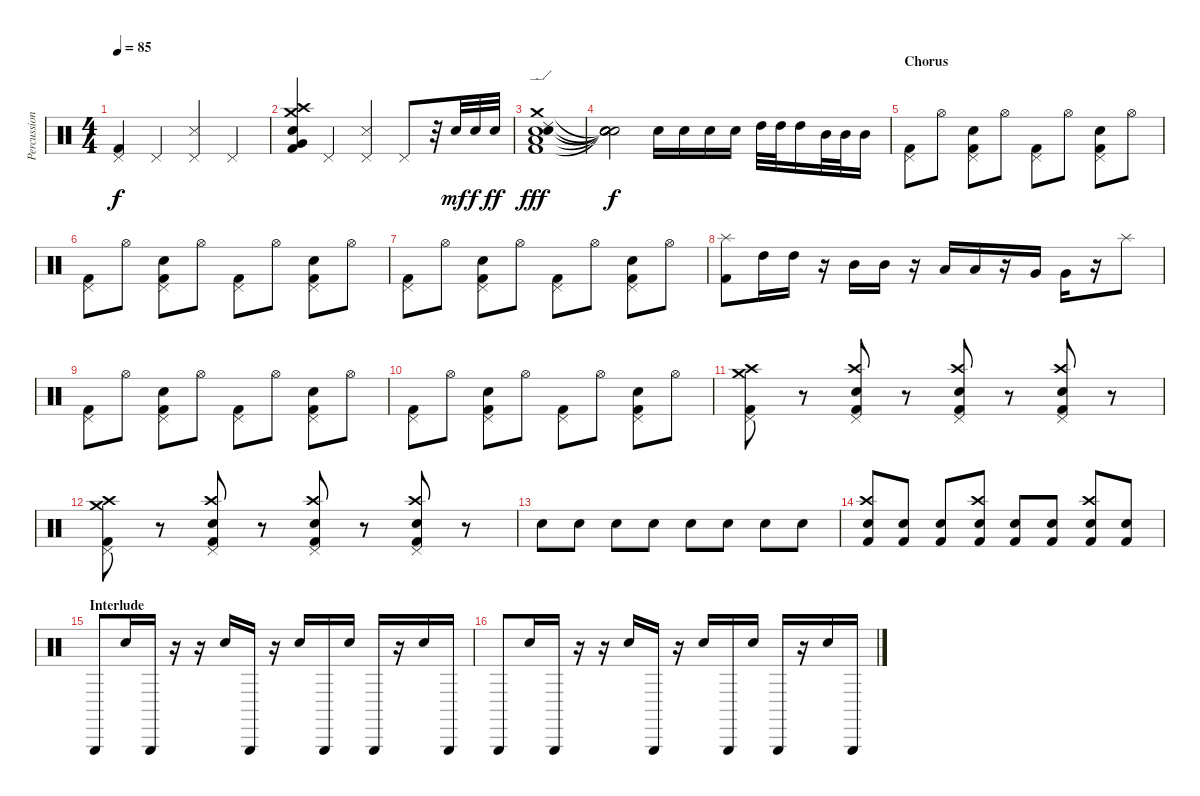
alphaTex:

\track ("Percussion" "Percussion") {instrument percussion}
\staff {score}
\articulation defaults
\ts (4 4)
\tempo 85
\clef neutral
\ks c
("Pedal Hi-Hat (hit)" "Kick (hit) 2").4{dy f} "Pedal Hi-Hat (hit)".4 ("Pedal Hi-Hat (hit)" "Snare (side stick) 3").4 "Pedal Hi-Hat (hit)".4 |
("Crash high (hit)" "Crash medium (hit)" "Electric Snare (hit)" "Very Low Tom (hit)" "Kick (hit) 2").4 "Pedal Hi-Hat (hit)".4 ("Pedal Hi-Hat (hit)" "Snare (side stick) 3").4 "Pedal Hi-Hat (hit)".8 r.32 "Electric Snare (hit)".32{dy mf} "Electric Snare (hit)".32{dy f} "Electric Snare (hit)".32{dy ff} |
("Crash medium (hit)" "Ride (edge) 2" "Electric Snare (hit)" "Low Floor Tom (hit)" "Metronome (bell)" "Kick (hit) 2").1{dy fff} |
("Snare (hit)"{t} "Snare (hit)"{t} "Snare (hit)"{t} "Snare (hit)"{t} "Snare (hit)"{t} "Snare (hit)"{t}).2{dy f} "Electric Snare (hit)".16 "Electric Snare (hit)".16 "Electric Snare (hit)".16 "Electric Snare (hit)".16 "High Tom (hit)".32 "High Tom (hit)".32 "High Tom (hit)".16 "Mid Tom (hit)".32 "Mid Tom (hit)".32 "Mid Tom (hit)".16 |
\section ("" "Chorus")
("Pedal Hi-Hat (hit)" "Kick (hit) 2").8 "Hi-Hat (open)".8 ("Pedal Hi-Hat (hit)" "Electric Snare (hit)" "Kick (hit) 2").8 "Hi-Hat (open)".8 ("Pedal Hi-Hat (hit)" "Kick (hit) 2").8 "Hi-Hat (open)".8 ("Pedal Hi-Hat (hit)" "Electric Snare (hit)" "Kick (hit) 2").8 "Hi-Hat (open)".8 |
("Pedal Hi-Hat (hit)" "Kick (hit) 2").8 "Hi-Hat (open)".8 ("Pedal Hi-Hat (hit)" "Electric Snare (hit)" "Kick (hit) 2").8 "Hi-Hat (open)".8 ("Pedal Hi-Hat (hit)" "Kick (hit) 2").8 "Hi-Hat (open)".8 ("Pedal Hi-Hat (hit)" "Electric Snare (hit)" "Kick (hit) 2").8 "Hi-Hat (open)".8 |
("Pedal Hi-Hat (hit)" "Kick (hit) 2").8 "Hi-Hat (open)".8 ("Pedal Hi-Hat (hit)" "Electric Snare (hit)" "Kick (hit) 2").8 "Hi-Hat (open)".8 ("Pedal Hi-Hat (hit)" "Kick (hit) 2").8 "Hi-Hat (open)".8 ("Pedal Hi-Hat (hit)" "Electric Snare (hit)" "Kick (hit) 2").8 "Hi-Hat (open)".8 |
("Splash (hit)" "Kick (hit) 2").8 "High Tom (hit)".16 "High Tom (hit)".16 r.16 "Mid Tom (hit)".16 "Mid Tom (hit)".16 r.16 "Low Tom (hit)".16 "Low Tom (hit)".16 r.16 "Very Low Tom (hit)".16 "Very Low Tom (hit)".16 r.16 "Splash (hit)".8 |
("Pedal Hi-Hat (hit)" "Kick (hit) 2").8 "Hi-Hat (open)".8 ("Pedal Hi-Hat (hit)" "Electric Snare (hit)" "Kick (hit) 2").8 "Hi-Hat (open)".8 ("Pedal Hi-Hat (hit)" "Kick (hit) 2").8 "Hi-Hat (open)".8 ("Pedal Hi-Hat (hit)" "Electric Snare (hit)" "Kick (hit) 2").8 "Hi-Hat (open)".8 |
("Pedal Hi-Hat (hit)" "Kick (hit) 2").8 "Hi-Hat (open)".8 ("Pedal Hi-Hat (hit)" "Electric Snare (hit)" "Kick (hit) 2").8 "Hi-Hat (open)".8 ("Pedal Hi-Hat (hit)" "Kick (hit) 2").8 "Hi-Hat (open)".8 ("Pedal Hi-Hat (hit)" "Electric Snare (hit)" "Kick (hit) 2").8 "Hi-Hat (open)".8 |
("Crash high (hit)" "Pedal Hi-Hat (hit)" "Crash medium (hit)" "Kick (hit) 2").8 r.8 ("Crash high (hit)" "Pedal Hi-Hat (hit)" "Electric Snare (hit)" "Kick (hit) 2").8 r.8 ("Crash high (hit)" "Pedal Hi-Hat (hit)" "Electric Snare (hit)" "Kick (hit) 2").8 r.8 ("Crash high (hit)" "Pedal Hi-Hat (hit)" "Electric Snare (hit)" "Kick (hit) 2").8 r.8 |
("Crash high (hit)" "Pedal Hi-Hat (hit)" "Crash medium (hit)" "Kick (hit) 2").8 r.8 ("Crash high (hit)" "Pedal Hi-Hat (hit)" "Electric Snare (hit)" "Kick (hit) 2").8 r.8 ("Crash high (hit)" "Pedal Hi-Hat (hit)" "Electric Snare (hit)" "Kick (hit) 2").8 r.8 ("Crash high (hit)" "Pedal Hi-Hat (hit)" "Electric Snare (hit)" "Kick (hit) 2").8 r.8 |
"Electric Snare (hit)".8 "Electric Snare (hit)".8 "Electric Snare (hit)".8 "Electric Snare (hit)".8 "Electric Snare (hit)".8 "Electric Snare (hit)".8 "Electric Snare (hit)".8 "Electric Snare (hit)".8 |
("Crash high (hit)" "Electric Snare (hit)" "Kick (hit) 2").8 ("Electric Snare (hit)" "Kick (hit) 2").8 ("Electric Snare (hit)" "Kick (hit) 2").8 ("Crash high (hit)" "Electric Snare (hit)" "Kick (hit) 2").8 ("Electric Snare (hit)" "Kick (hit) 2").8 ("Electric Snare (hit)" "Kick (hit) 2").8 ("Crash high (hit)" "Electric Snare (hit)" "Kick (hit) 2").8 ("Electric Snare (hit)" "Kick (hit) 2").8 |
\section ("" "Interlude")
"Triangle (hit)".8 "Metronome (bell)".16 "Triangle (hit)".16 r.16 r.16 "Metronome (bell)".16 "Triangle (hit)".16 r.16 "Metronome (bell)".16 "Triangle (hit)".16 "Metronome (bell)".16 "Triangle (hit)".16 r.16 "Metronome (bell)".16 "Triangle (hit)".16 |
"Triangle (hit)".8 "Metronome (bell)".16 "Triangle (hit)".16 r.16 r.16 "Metronome (bell)".16 "Triangle (hit)".16 r.16 "Metronome (bell)".16 "Triangle (hit)".16 "Metronome (bell)".16 "Triangle (hit)".16 r.16 "Metronome (bell)".16 "Triangle (hit)".16
